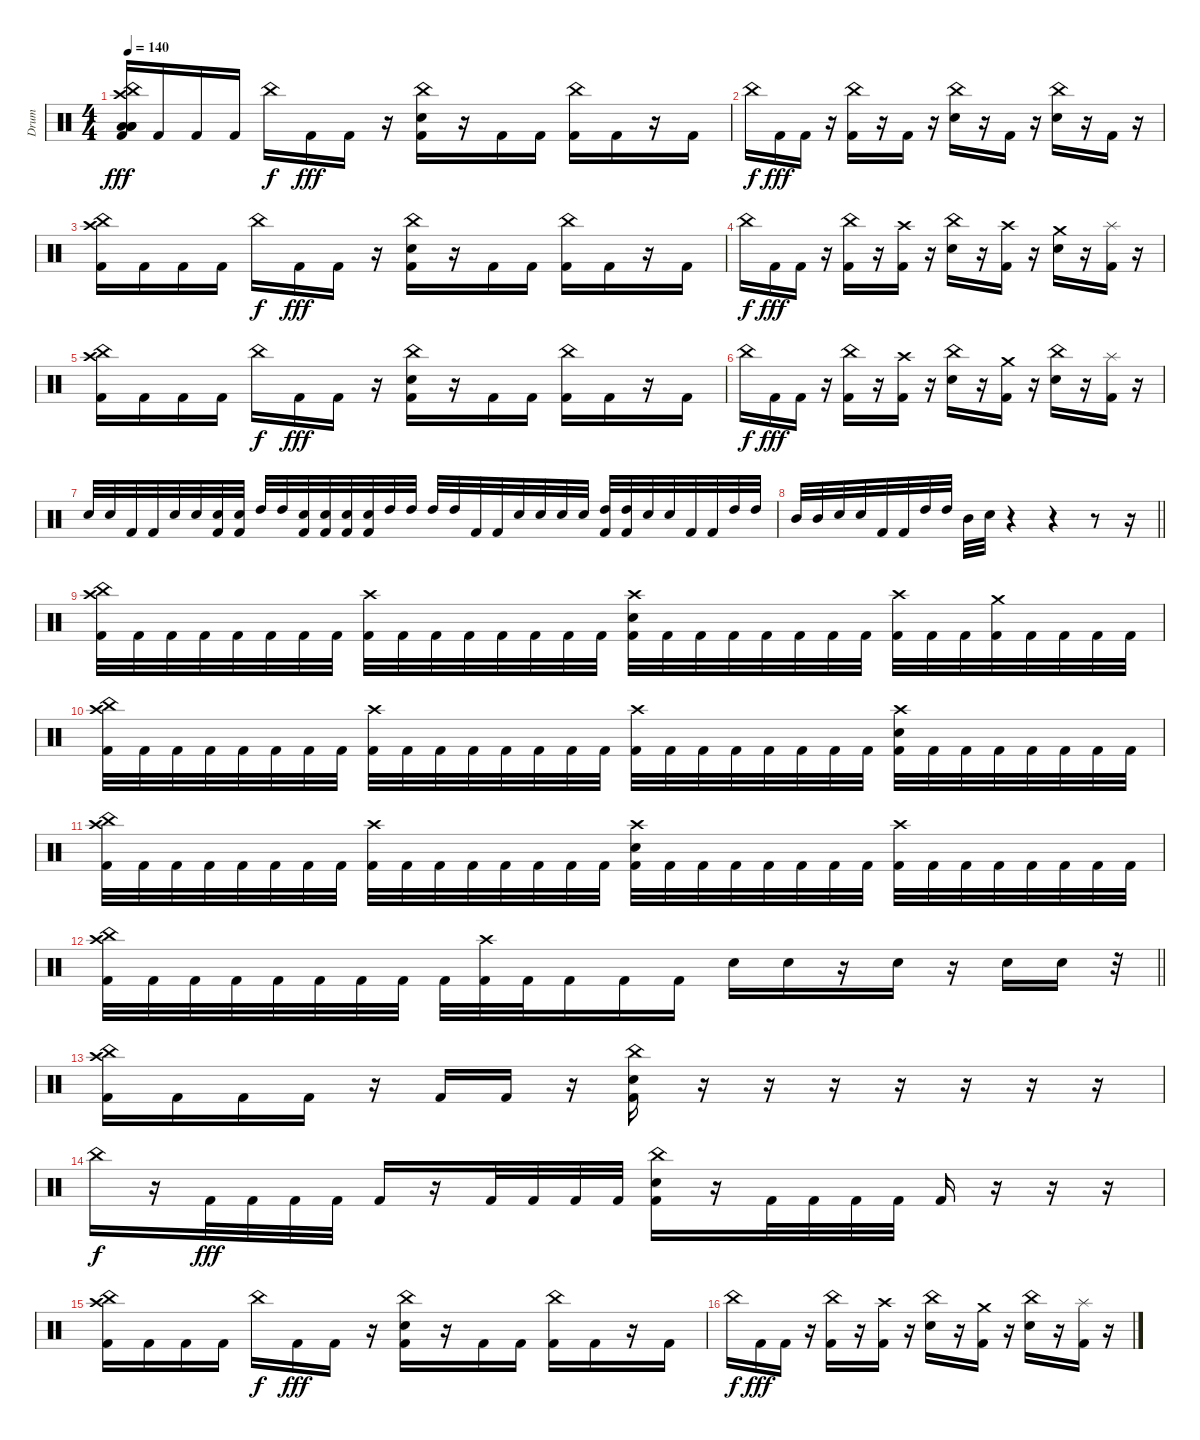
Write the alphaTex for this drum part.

\track ("Drum" "Drum") {instrument percussion}
\staff {score}
\articulation defaults
\ts (4 4)
\section ("" "")
\tempo 140
\clef neutral
\ks c
("Low Tom (hit)" "Crash high (hit)" "China (hit)" "Low Floor Tom (hit)" "Low Floor Tom (hit)" "Kick (hit) 2").16{dy fff} "Kick (hit) 2".16 "Kick (hit) 2".16 "Kick (hit) 2".16 "China (hit)".16{dy f} "Kick (hit) 2".16{dy fff} "Kick (hit) 2".16 r.16 ("China (hit)" "Electric Snare (hit)" "Kick (hit) 2").16 r.16 "Kick (hit) 2".16 "Kick (hit) 2".16 ("China (hit)" "Kick (hit) 2").16 "Kick (hit) 2".16 r.16 "Kick (hit) 2".16 |
"China (hit)".16{dy f} "Kick (hit) 2".16{dy fff} "Kick (hit) 2".16 r.16 ("China (hit)" "Kick (hit) 2").16 r.16 "Kick (hit) 2".16 r.16 ("China (hit)" "Electric Snare (hit)").16 r.16 "Kick (hit) 2".16 r.16 ("China (hit)" "Electric Snare (hit)").16 r.16 "Kick (hit) 2".16 r.16 |
("Crash high (hit)" "China (hit)" "Kick (hit) 2").16 "Kick (hit) 2".16 "Kick (hit) 2".16 "Kick (hit) 2".16 "China (hit)".16{dy f} "Kick (hit) 2".16{dy fff} "Kick (hit) 2".16 r.16 ("China (hit)" "Electric Snare (hit)" "Kick (hit) 2").16 r.16 "Kick (hit) 2".16 "Kick (hit) 2".16 ("China (hit)" "Kick (hit) 2").16 "Kick (hit) 2".16 r.16 "Kick (hit) 2".16 |
"China (hit)".16{dy f} "Kick (hit) 2".16{dy fff} "Kick (hit) 2".16 r.16 ("China (hit)" "Kick (hit) 2").16 r.16 ("Crash high (hit)" "Kick (hit) 2").16 r.16 ("China (hit)" "Electric Snare (hit)").16 r.16 ("Crash high (hit)" "Kick (hit) 2").16 r.16 ("Crash medium (hit)" "Electric Snare (hit)").16 r.16 ("Splash (hit)" "Kick (hit) 2").16 r.16 |
("Crash high (hit)" "China (hit)" "Kick (hit) 2").16 "Kick (hit) 2".16 "Kick (hit) 2".16 "Kick (hit) 2".16 "China (hit)".16{dy f} "Kick (hit) 2".16{dy fff} "Kick (hit) 2".16 r.16 ("China (hit)" "Electric Snare (hit)" "Kick (hit) 2").16 r.16 "Kick (hit) 2".16 "Kick (hit) 2".16 ("China (hit)" "Kick (hit) 2").16 "Kick (hit) 2".16 r.16 "Kick (hit) 2".16 |
"China (hit)".16{dy f} "Kick (hit) 2".16{dy fff} "Kick (hit) 2".16 r.16 ("China (hit)" "Kick (hit) 2").16 r.16 ("Crash high (hit)" "Kick (hit) 2").16 r.16 ("China (hit)" "Electric Snare (hit)").16 r.16 ("Crash medium (hit)" "Kick (hit) 2").16 r.16 ("China (hit)" "Electric Snare (hit)").16 r.16 ("Splash (hit)" "Kick (hit) 2").16 r.16 |
"Electric Snare (hit)".32 "Electric Snare (hit)".32 "Kick (hit) 2".32 "Kick (hit) 2".32 "Electric Snare (hit)".32 "Electric Snare (hit)".32 ("Electric Snare (hit)" "Kick (hit) 2").32 ("Electric Snare (hit)" "Kick (hit) 2").32 "High Tom (hit)".32 "High Tom (hit)".32 ("Electric Snare (hit)" "Kick (hit) 2").32 ("Electric Snare (hit)" "Kick (hit) 2").32 ("Electric Snare (hit)" "Kick (hit) 2").32 ("Electric Snare (hit)" "Kick (hit) 2").32 "High Tom (hit)".32 "High Tom (hit)".32 "High Tom (hit)".32 "High Tom (hit)".32 "Kick (hit) 2".32 "Kick (hit) 2".32 "Electric Snare (hit)".32 "Electric Snare (hit)".32 "Electric Snare (hit)".32 "Electric Snare (hit)".32 ("High Tom (hit)" "Kick (hit) 2").32 ("High Tom (hit)" "Kick (hit) 2").32 "Electric Snare (hit)".32 "Electric Snare (hit)".32 "Kick (hit) 2".32 "Kick (hit) 2".32 "High Tom (hit)".32 "High Tom (hit)".32 |
\barLineRight lightlight "Mid Tom (hit)".32 "Mid Tom (hit)".32 "Electric Snare (hit)".32 "Electric Snare (hit)".32 "Kick (hit) 2".32 "Kick (hit) 2".32 "High Tom (hit)".32 "High Tom (hit)".32 "Mid Tom (hit)".32 "Electric Snare (hit)".32
r.4 r.4 r.8 r.16 |
\section ("" "")
("Crash high (hit)" "China (hit)" "Kick (hit) 2").32 "Kick (hit) 2".32 "Kick (hit) 2".32 "Kick (hit) 2".32 "Kick (hit) 2".32 "Kick (hit) 2".32 "Kick (hit) 2".32 "Kick (hit) 2".32 ("Crash high (hit)" "Kick (hit) 2").32 "Kick (hit) 2".32 "Kick (hit) 2".32 "Kick (hit) 2".32 "Kick (hit) 2".32 "Kick (hit) 2".32 "Kick (hit) 2".32 "Kick (hit) 2".32 ("Crash high (hit)" "Electric Snare (hit)" "Kick (hit) 2").32 "Kick (hit) 2".32 "Kick (hit) 2".32 "Kick (hit) 2".32 "Kick (hit) 2".32 "Kick (hit) 2".32 "Kick (hit) 2".32 "Kick (hit) 2".32 ("Crash high (hit)" "Kick (hit) 2").32 "Kick (hit) 2".32 "Kick (hit) 2".32 ("Crash medium (hit)" "Kick (hit) 2").32 "Kick (hit) 2".32 "Kick (hit) 2".32 "Kick (hit) 2".32 "Kick (hit) 2".32 |
("Crash high (hit)" "China (hit)" "Kick (hit) 2").32 "Kick (hit) 2".32 "Kick (hit) 2".32 "Kick (hit) 2".32 "Kick (hit) 2".32 "Kick (hit) 2".32 "Kick (hit) 2".32 "Kick (hit) 2".32 ("Crash high (hit)" "Kick (hit) 2").32 "Kick (hit) 2".32 "Kick (hit) 2".32 "Kick (hit) 2".32 "Kick (hit) 2".32 "Kick (hit) 2".32 "Kick (hit) 2".32 "Kick (hit) 2".32 ("Crash high (hit)" "Kick (hit) 2").32 "Kick (hit) 2".32 "Kick (hit) 2".32 "Kick (hit) 2".32 "Kick (hit) 2".32 "Kick (hit) 2".32 "Kick (hit) 2".32 "Kick (hit) 2".32 ("Crash high (hit)" "Electric Snare (hit)" "Kick (hit) 2").32 "Kick (hit) 2".32 "Kick (hit) 2".32 "Kick (hit) 2".32 "Kick (hit) 2".32 "Kick (hit) 2".32 "Kick (hit) 2".32 "Kick (hit) 2".32 |
("Crash high (hit)" "China (hit)" "Kick (hit) 2").32 "Kick (hit) 2".32 "Kick (hit) 2".32 "Kick (hit) 2".32 "Kick (hit) 2".32 "Kick (hit) 2".32 "Kick (hit) 2".32 "Kick (hit) 2".32 ("Crash high (hit)" "Kick (hit) 2").32 "Kick (hit) 2".32 "Kick (hit) 2".32 "Kick (hit) 2".32 "Kick (hit) 2".32 "Kick (hit) 2".32 "Kick (hit) 2".32 "Kick (hit) 2".32 ("Crash high (hit)" "Electric Snare (hit)" "Kick (hit) 2").32 "Kick (hit) 2".32 "Kick (hit) 2".32 "Kick (hit) 2".32 "Kick (hit) 2".32 "Kick (hit) 2".32 "Kick (hit) 2".32 "Kick (hit) 2".32 ("Crash high (hit)" "Kick (hit) 2").32 "Kick (hit) 2".32 "Kick (hit) 2".32 "Kick (hit) 2".32 "Kick (hit) 2".32 "Kick (hit) 2".32 "Kick (hit) 2".32 "Kick (hit) 2".32 |
\barLineRight lightlight
("Crash high (hit)" "China (hit)" "Kick (hit) 2").32 "Kick (hit) 2".32 "Kick (hit) 2".32 "Kick (hit) 2".32 "Kick (hit) 2".32 "Kick (hit) 2".32 "Kick (hit) 2".32 "Kick (hit) 2".32 "Kick (hit) 2".32 ("Crash high (hit)" "Kick (hit) 2").32 "Kick (hit) 2".32 "Kick (hit) 2".16 "Kick (hit) 2".16 "Kick (hit) 2".16 "Electric Snare (hit)".16 "Electric Snare (hit)".16 r.16 "Electric Snare (hit)".16 r.16 "Electric Snare (hit)".16 "Electric Snare (hit)".16 r.32 |
\section ("" "")
("Crash high (hit)" "China (hit)" "Kick (hit) 2").16 "Kick (hit) 2".16 "Kick (hit) 2".16 "Kick (hit) 2".16 r.16 "Kick (hit) 2".16 "Kick (hit) 2".16 r.16 ("China (hit)" "Electric Snare (hit)" "Kick (hit) 2").16 r.16 r.16 r.16 r.16 r.16 r.16 r.16 |
"China (hit)".16{dy f} r.16 "Kick (hit) 2".32{dy fff} "Kick (hit) 2".32 "Kick (hit) 2".32 "Kick (hit) 2".32 "Kick (hit) 2".16 r.16 "Kick (hit) 2".32 "Kick (hit) 2".32 "Kick (hit) 2".32 "Kick (hit) 2".32 ("China (hit)" "Electric Snare (hit)" "Kick (hit) 2").16 r.16 "Kick (hit) 2".32 "Kick (hit) 2".32 "Kick (hit) 2".32 "Kick (hit) 2".32 "Kick (hit) 2".16 r.16 r.16 r.16 |
("Crash high (hit)" "China (hit)" "Kick (hit) 2").16 "Kick (hit) 2".16 "Kick (hit) 2".16 "Kick (hit) 2".16 "China (hit)".16{dy f} "Kick (hit) 2".16{dy fff} "Kick (hit) 2".16 r.16 ("China (hit)" "Electric Snare (hit)" "Kick (hit) 2").16 r.16 "Kick (hit) 2".16 "Kick (hit) 2".16 ("China (hit)" "Kick (hit) 2").16 "Kick (hit) 2".16 r.16 "Kick (hit) 2".16 |
"China (hit)".16{dy f} "Kick (hit) 2".16{dy fff} "Kick (hit) 2".16 r.16 ("China (hit)" "Kick (hit) 2").16 r.16 ("Crash high (hit)" "Kick (hit) 2").16 r.16 ("China (hit)" "Electric Snare (hit)").16 r.16 ("Crash medium (hit)" "Kick (hit) 2").16 r.16 ("China (hit)" "Electric Snare (hit)").16 r.16 ("Splash (hit)" "Kick (hit) 2").16 r.16
